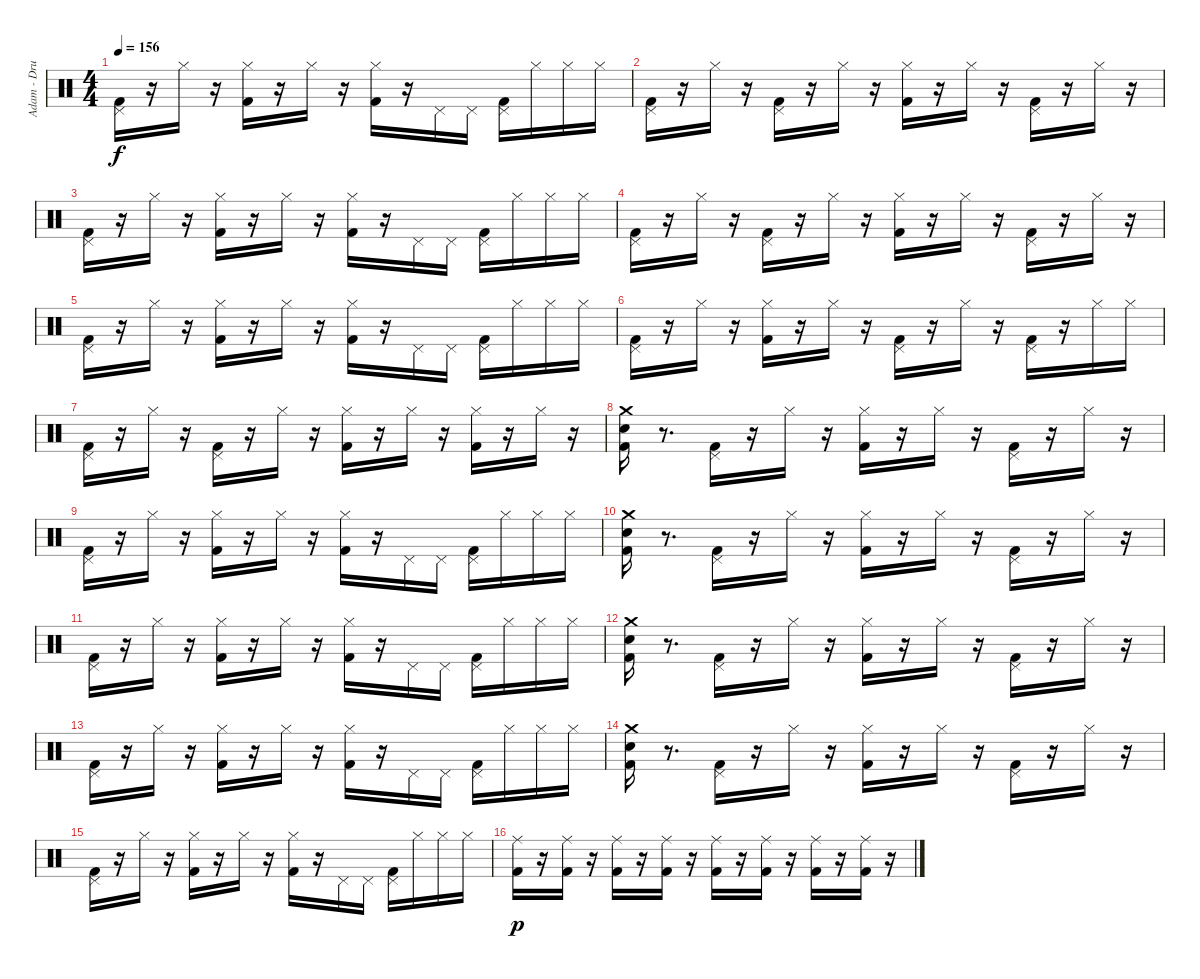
\track ("Adam - Drums" "Adam - Dru") {instrument percussion}
\staff {score}
\articulation defaults
\ts (4 4)
\tempo 156
\clef neutral
\ks c
("Kick (hit) 2" "Pedal Hi-Hat (hit)").16{dy f} r.16 "Hi-Hat (closed)".16 r.16 ("Kick (hit) 2" "Hi-Hat (closed)").16 r.16 "Hi-Hat (closed)".16 r.16 ("Kick (hit) 2" "Hi-Hat (closed)").16 r.16 "Pedal Hi-Hat (hit)".16 "Pedal Hi-Hat (hit)".16 ("Kick (hit) 2" "Pedal Hi-Hat (hit)").16 "Hi-Hat (closed)".16 "Hi-Hat (closed)".16 "Hi-Hat (closed)".16 |
("Kick (hit) 2" "Pedal Hi-Hat (hit)").16 r.16 "Hi-Hat (closed)".16 r.16 ("Kick (hit) 2" "Pedal Hi-Hat (hit)").16 r.16 "Hi-Hat (closed)".16 r.16 ("Kick (hit) 2" "Hi-Hat (closed)").16 r.16 "Hi-Hat (closed)".16 r.16 ("Kick (hit) 2" "Pedal Hi-Hat (hit)").16 r.16 "Hi-Hat (closed)".16 r.16 |
("Kick (hit) 2" "Pedal Hi-Hat (hit)").16 r.16 "Hi-Hat (closed)".16 r.16 ("Kick (hit) 2" "Hi-Hat (closed)").16 r.16 "Hi-Hat (closed)".16 r.16 ("Kick (hit) 2" "Hi-Hat (closed)").16 r.16 "Pedal Hi-Hat (hit)".16 "Pedal Hi-Hat (hit)".16 ("Kick (hit) 2" "Pedal Hi-Hat (hit)").16 "Hi-Hat (closed)".16 "Hi-Hat (closed)".16 "Hi-Hat (closed)".16 |
("Kick (hit) 2" "Pedal Hi-Hat (hit)").16 r.16 "Hi-Hat (closed)".16 r.16 ("Kick (hit) 2" "Pedal Hi-Hat (hit)").16 r.16 "Hi-Hat (closed)".16 r.16 ("Kick (hit) 2" "Hi-Hat (closed)").16 r.16 "Hi-Hat (closed)".16 r.16 ("Kick (hit) 2" "Pedal Hi-Hat (hit)").16 r.16 "Hi-Hat (closed)".16 r.16 |
("Kick (hit) 2" "Pedal Hi-Hat (hit)").16 r.16 "Hi-Hat (closed)".16 r.16 ("Kick (hit) 2" "Hi-Hat (closed)").16 r.16 "Hi-Hat (closed)".16 r.16 ("Kick (hit) 2" "Hi-Hat (closed)").16 r.16 "Pedal Hi-Hat (hit)".16 "Pedal Hi-Hat (hit)".16 ("Kick (hit) 2" "Pedal Hi-Hat (hit)").16 "Hi-Hat (closed)".16 "Hi-Hat (closed)".16 "Hi-Hat (closed)".16 |
("Kick (hit) 2" "Pedal Hi-Hat (hit)").16 r.16 "Hi-Hat (closed)".16 r.16 ("Kick (hit) 2" "Hi-Hat (closed)").16 r.16 "Hi-Hat (closed)".16 r.16 ("Pedal Hi-Hat (hit)" "Kick (hit) 2").16 r.16 "Hi-Hat (closed)".16 r.16 ("Pedal Hi-Hat (hit)" "Kick (hit) 2").16 r.16 "Hi-Hat (closed)".16 "Hi-Hat (closed)".16 |
("Pedal Hi-Hat (hit)" "Kick (hit) 2").16 r.16 "Hi-Hat (closed)".16 r.16 ("Pedal Hi-Hat (hit)" "Kick (hit) 2").16 r.16 "Hi-Hat (closed)".16 r.16 ("Hi-Hat (closed)" "Kick (hit) 2").16 r.16 "Hi-Hat (closed)".16 r.16 ("Kick (hit) 2" "Hi-Hat (closed)").16 r.16 "Hi-Hat (closed)".16 r.16 |
("Kick (hit) 2" "Snare (hit) 2" "Crash medium (hit)").16 r.8{d} ("Kick (hit) 2" "Pedal Hi-Hat (hit)").16 r.16 "Hi-Hat (closed)".16 r.16 ("Kick (hit) 2" "Hi-Hat (closed)").16 r.16 "Hi-Hat (closed)".16 r.16 ("Kick (hit) 2" "Pedal Hi-Hat (hit)").16 r.16 "Hi-Hat (closed)".16 r.16 |
("Kick (hit) 2" "Pedal Hi-Hat (hit)").16 r.16 "Hi-Hat (closed)".16 r.16 ("Kick (hit) 2" "Hi-Hat (closed)").16 r.16 "Hi-Hat (closed)".16 r.16 ("Kick (hit) 2" "Hi-Hat (closed)").16 r.16 "Pedal Hi-Hat (hit)".16 "Pedal Hi-Hat (hit)".16 ("Kick (hit) 2" "Pedal Hi-Hat (hit)").16 "Hi-Hat (closed)".16 "Hi-Hat (closed)".16 "Hi-Hat (closed)".16 |
("Kick (hit) 2" "Snare (hit) 2" "Crash medium (hit)").16 r.8{d} ("Kick (hit) 2" "Pedal Hi-Hat (hit)").16 r.16 "Hi-Hat (closed)".16 r.16 ("Kick (hit) 2" "Hi-Hat (closed)").16 r.16 "Hi-Hat (closed)".16 r.16 ("Kick (hit) 2" "Pedal Hi-Hat (hit)").16 r.16 "Hi-Hat (closed)".16 r.16 |
("Kick (hit) 2" "Pedal Hi-Hat (hit)").16 r.16 "Hi-Hat (closed)".16 r.16 ("Kick (hit) 2" "Hi-Hat (closed)").16 r.16 "Hi-Hat (closed)".16 r.16 ("Kick (hit) 2" "Hi-Hat (closed)").16 r.16 "Pedal Hi-Hat (hit)".16 "Pedal Hi-Hat (hit)".16 ("Kick (hit) 2" "Pedal Hi-Hat (hit)").16 "Hi-Hat (closed)".16 "Hi-Hat (closed)".16 "Hi-Hat (closed)".16 |
("Kick (hit) 2" "Snare (hit) 2" "Crash medium (hit)").16 r.8{d} ("Kick (hit) 2" "Pedal Hi-Hat (hit)").16 r.16 "Hi-Hat (closed)".16 r.16 ("Kick (hit) 2" "Hi-Hat (closed)").16 r.16 "Hi-Hat (closed)".16 r.16 ("Kick (hit) 2" "Pedal Hi-Hat (hit)").16 r.16 "Hi-Hat (closed)".16 r.16 |
("Kick (hit) 2" "Pedal Hi-Hat (hit)").16 r.16 "Hi-Hat (closed)".16 r.16 ("Kick (hit) 2" "Hi-Hat (closed)").16 r.16 "Hi-Hat (closed)".16 r.16 ("Kick (hit) 2" "Hi-Hat (closed)").16 r.16 "Pedal Hi-Hat (hit)".16 "Pedal Hi-Hat (hit)".16 ("Kick (hit) 2" "Pedal Hi-Hat (hit)").16 "Hi-Hat (closed)".16 "Hi-Hat (closed)".16 "Hi-Hat (closed)".16 |
("Kick (hit) 2" "Snare (hit) 2" "Crash medium (hit)").16 r.8{d} ("Kick (hit) 2" "Pedal Hi-Hat (hit)").16 r.16 "Hi-Hat (closed)".16 r.16 ("Kick (hit) 2" "Hi-Hat (closed)").16 r.16 "Hi-Hat (closed)".16 r.16 ("Kick (hit) 2" "Pedal Hi-Hat (hit)").16 r.16 "Hi-Hat (closed)".16 r.16 |
("Kick (hit) 2" "Pedal Hi-Hat (hit)").16 r.16 "Hi-Hat (closed)".16 r.16 ("Kick (hit) 2" "Hi-Hat (closed)").16 r.16 "Hi-Hat (closed)".16 r.16 ("Kick (hit) 2" "Hi-Hat (closed)").16 r.16 "Pedal Hi-Hat (hit)".16 "Pedal Hi-Hat (hit)".16 ("Kick (hit) 2" "Pedal Hi-Hat (hit)").16 "Hi-Hat (closed)".16 "Hi-Hat (closed)".16 "Hi-Hat (closed)".16 |
("Ride (middle)" "Kick (hit) 2").16{dy p} r.16 ("Ride (middle)" "Kick (hit) 2").16 r.16 ("Ride (middle)" "Kick (hit) 2").16 r.16 ("Ride (middle)" "Kick (hit) 2").16 r.16 ("Ride (middle)" "Kick (hit) 2").16 r.16 ("Ride (middle)" "Kick (hit) 2").16 r.16 ("Ride (middle)" "Kick (hit) 2").16 r.16 ("Ride (middle)" "Kick (hit) 2").16 r.16
